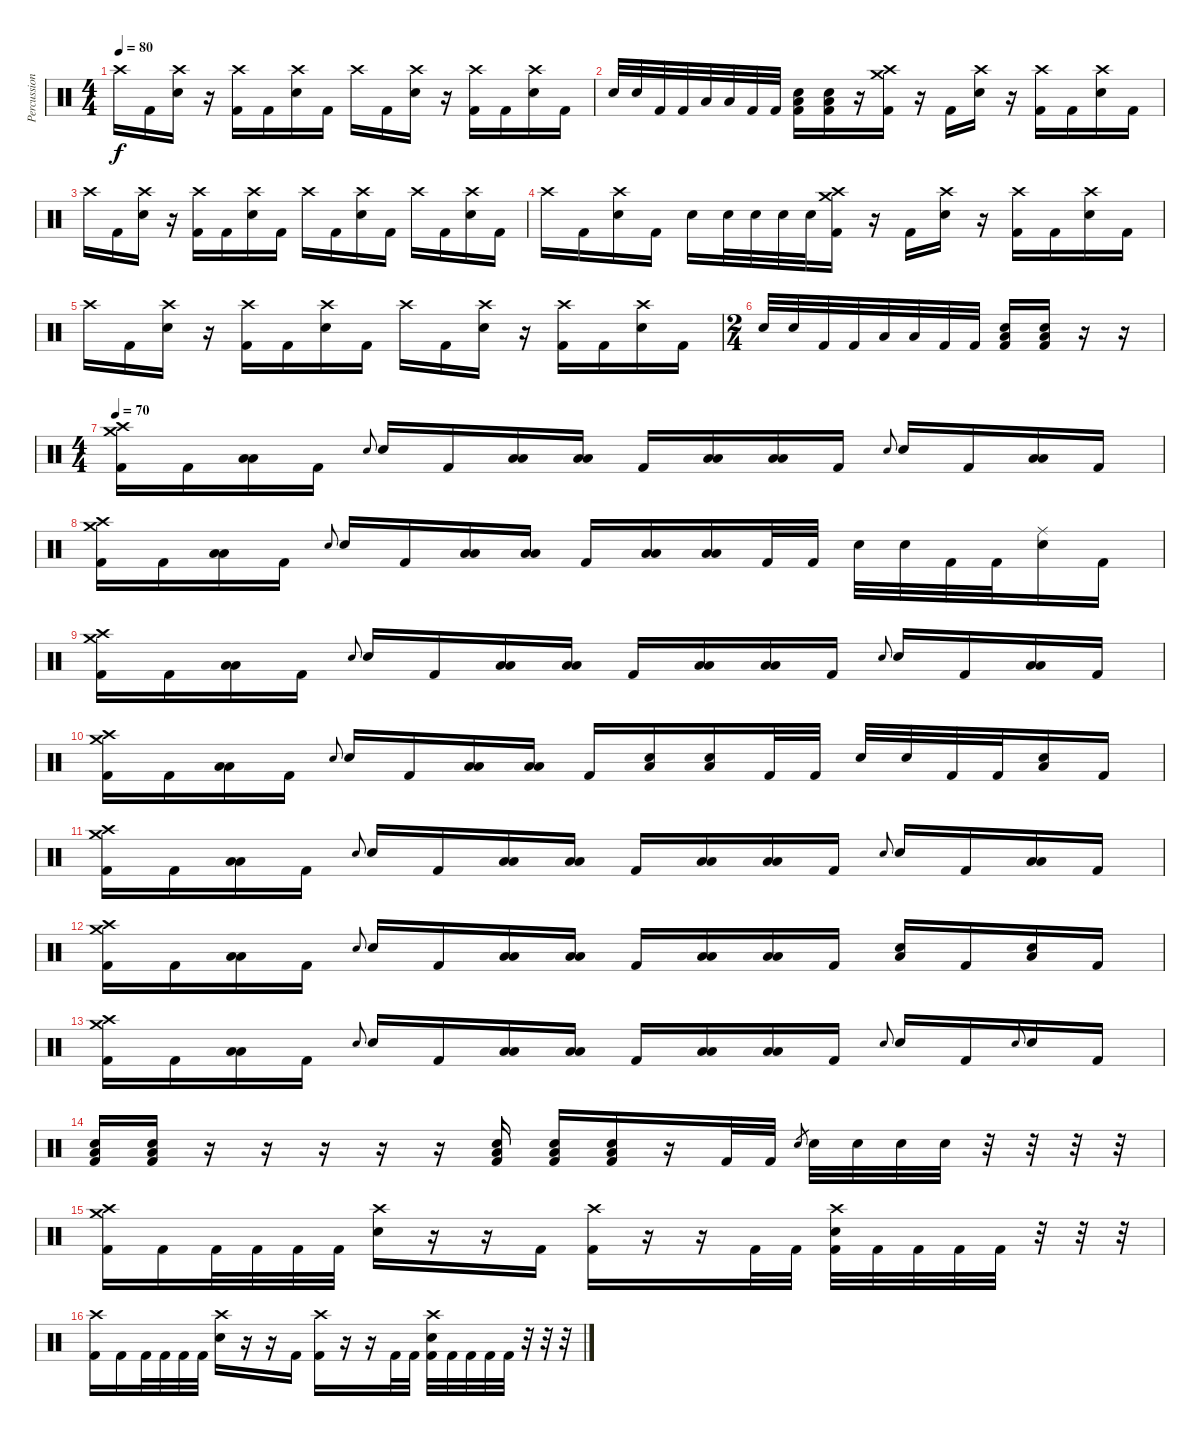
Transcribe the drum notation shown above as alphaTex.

\track ("Percussion" "Percussion") {instrument percussion}
\staff {score}
\articulation defaults
\ts (4 4)
\tempo 80
\clef neutral
\ks c "Crash high (hit)".16{dy f} "Kick (hit) 2".16
("Crash high (hit)" "Electric Snare (hit)").16 r.16 ("Crash high (hit)" "Kick (hit) 2").16 "Kick (hit) 2".16 ("Crash high (hit)" "Electric Snare (hit)").16 "Kick (hit) 2".16 "Crash high (hit)".16 "Kick (hit) 2".16 ("Crash high (hit)" "Electric Snare (hit)").16 r.16 ("Crash high (hit)" "Kick (hit) 2").16 "Kick (hit) 2".16 ("Crash high (hit)" "Electric Snare (hit)").16 "Kick (hit) 2".16 |
"Electric Snare (hit)".32 "Electric Snare (hit)".32 "Kick (hit) 2".32 "Kick (hit) 2".32 "Low Tom (hit)".32 "Low Tom (hit)".32 "Kick (hit) 2".32 "Kick (hit) 2".32 ("Low Floor Tom (hit)" "Electric Snare (hit)" "Kick (hit) 2").16 ("Low Floor Tom (hit)" "Electric Snare (hit)" "Kick (hit) 2").16 r.16 ("Crash medium (hit)" "Crash high (hit)" "Kick (hit) 2").16 r.16 "Kick (hit) 2".16 ("Crash high (hit)" "Electric Snare (hit)").16 r.16 ("Crash high (hit)" "Kick (hit) 2").16 "Kick (hit) 2".16 ("Crash high (hit)" "Electric Snare (hit)").16 "Kick (hit) 2".16 |
"Crash high (hit)".16 "Kick (hit) 2".16 ("Crash high (hit)" "Electric Snare (hit)").16 r.16 ("Crash high (hit)" "Kick (hit) 2").16 "Kick (hit) 2".16 ("Crash high (hit)" "Electric Snare (hit)").16 "Kick (hit) 2".16 "Crash high (hit)".16 "Kick (hit) 2".16 ("Crash high (hit)" "Electric Snare (hit)").16 "Kick (hit) 2".16 "Crash high (hit)".16 "Kick (hit) 2".16 ("Crash high (hit)" "Electric Snare (hit)").16 "Kick (hit) 2".16 |
"Crash high (hit)".16 "Kick (hit) 2".16 ("Crash high (hit)" "Electric Snare (hit)").16 "Kick (hit) 2".16 "Electric Snare (hit)".16 "Electric Snare (hit)".32 "Electric Snare (hit)".32 "Electric Snare (hit)".32 "Electric Snare (hit)".32 ("Crash medium (hit)" "Crash high (hit)" "Kick (hit) 2").16 r.16 "Kick (hit) 2".16 ("Crash high (hit)" "Electric Snare (hit)").16 r.16 ("Crash high (hit)" "Kick (hit) 2").16 "Kick (hit) 2".16 ("Crash high (hit)" "Electric Snare (hit)").16 "Kick (hit) 2".16 |
"Crash high (hit)".16 "Kick (hit) 2".16 ("Crash high (hit)" "Electric Snare (hit)").16 r.16 ("Crash high (hit)" "Kick (hit) 2").16 "Kick (hit) 2".16 ("Crash high (hit)" "Electric Snare (hit)").16 "Kick (hit) 2".16 "Crash high (hit)".16 "Kick (hit) 2".16 ("Crash high (hit)" "Electric Snare (hit)").16 r.16 ("Crash high (hit)" "Kick (hit) 2").16 "Kick (hit) 2".16 ("Crash high (hit)" "Electric Snare (hit)").16 "Kick (hit) 2".16 |
\ts (2 4)
"Electric Snare (hit)".32 "Electric Snare (hit)".32 "Kick (hit) 2".32 "Kick (hit) 2".32 "Low Tom (hit)".32 "Low Tom (hit)".32 "Kick (hit) 2".32 "Kick (hit) 2".32 ("Low Floor Tom (hit)" "Electric Snare (hit)" "Kick (hit) 2").16 ("Low Floor Tom (hit)" "Electric Snare (hit)" "Kick (hit) 2").16 r.16 r.16 |
\ts (4 4)
\tempo 70
("Crash medium (hit)" "Crash high (hit)" "Kick (hit) 2").16 "Kick (hit) 2".16 ("Low Tom (hit)" "Low Floor Tom (hit)").16 "Kick (hit) 2".16 "Electric Snare (hit)".8{gr onbeat} "Electric Snare (hit)".16 "Kick (hit) 2".16 ("Low Tom (hit)" "Low Floor Tom (hit)").16 ("Low Tom (hit)" "Low Floor Tom (hit)").16 "Kick (hit) 2".16 ("Low Tom (hit)" "Low Floor Tom (hit)").16 ("Low Tom (hit)" "Low Floor Tom (hit)").16 "Kick (hit) 2".16 "Electric Snare (hit)".8{gr onbeat} "Electric Snare (hit)".16 "Kick (hit) 2".16 ("Low Tom (hit)" "Low Floor Tom (hit)").16 "Kick (hit) 2".16 |
("Crash medium (hit)" "Crash high (hit)" "Kick (hit) 2").16 "Kick (hit) 2".16 ("Low Tom (hit)" "Low Floor Tom (hit)").16 "Kick (hit) 2".16 "Electric Snare (hit)".8{gr onbeat} "Electric Snare (hit)".16 "Kick (hit) 2".16 ("Low Tom (hit)" "Low Floor Tom (hit)").16 ("Low Tom (hit)" "Low Floor Tom (hit)").16 "Kick (hit) 2".16 ("Low Tom (hit)" "Low Floor Tom (hit)").16 ("Low Tom (hit)" "Low Floor Tom (hit)").16 "Kick (hit) 2".32 "Kick (hit) 2".32 "Electric Snare (hit)".32 "Electric Snare (hit)".32 "Kick (hit) 2".32 "Kick (hit) 2".32 ("Ride (middle)" "Electric Snare (hit)").16 "Kick (hit) 2".16 |
("Crash medium (hit)" "Crash high (hit)" "Kick (hit) 2").16 "Kick (hit) 2".16 ("Low Tom (hit)" "Low Floor Tom (hit)").16 "Kick (hit) 2".16 "Electric Snare (hit)".8{gr onbeat} "Electric Snare (hit)".16 "Kick (hit) 2".16 ("Low Tom (hit)" "Low Floor Tom (hit)").16 ("Low Tom (hit)" "Low Floor Tom (hit)").16 "Kick (hit) 2".16 ("Low Tom (hit)" "Low Floor Tom (hit)").16 ("Low Tom (hit)" "Low Floor Tom (hit)").16 "Kick (hit) 2".16 "Electric Snare (hit)".8{gr onbeat} "Electric Snare (hit)".16 "Kick (hit) 2".16 ("Low Tom (hit)" "Low Floor Tom (hit)").16 "Kick (hit) 2".16 |
("Crash medium (hit)" "Crash high (hit)" "Kick (hit) 2").16 "Kick (hit) 2".16 ("Low Tom (hit)" "Low Floor Tom (hit)").16 "Kick (hit) 2".16 "Electric Snare (hit)".8{gr onbeat} "Electric Snare (hit)".16 "Kick (hit) 2".16 ("Low Tom (hit)" "Low Floor Tom (hit)").16 ("Low Tom (hit)" "Low Floor Tom (hit)").16 "Kick (hit) 2".16 ("Electric Snare (hit)" "Low Floor Tom (hit)").16 ("Electric Snare (hit)" "Low Floor Tom (hit)").16 "Kick (hit) 2".32 "Kick (hit) 2".32 "Electric Snare (hit)".32 "Electric Snare (hit)".32 "Kick (hit) 2".32 "Kick (hit) 2".32 ("Low Floor Tom (hit)" "Electric Snare (hit)").16 "Kick (hit) 2".16 |
("Crash medium (hit)" "Crash high (hit)" "Kick (hit) 2").16 "Kick (hit) 2".16 ("Low Tom (hit)" "Low Floor Tom (hit)").16 "Kick (hit) 2".16 "Electric Snare (hit)".8{gr onbeat} "Electric Snare (hit)".16 "Kick (hit) 2".16 ("Low Tom (hit)" "Low Floor Tom (hit)").16 ("Low Tom (hit)" "Low Floor Tom (hit)").16 "Kick (hit) 2".16 ("Low Tom (hit)" "Low Floor Tom (hit)").16 ("Low Tom (hit)" "Low Floor Tom (hit)").16 "Kick (hit) 2".16 "Electric Snare (hit)".8{gr onbeat} "Electric Snare (hit)".16 "Kick (hit) 2".16 ("Low Tom (hit)" "Low Floor Tom (hit)").16 "Kick (hit) 2".16 |
("Crash medium (hit)" "Crash high (hit)" "Kick (hit) 2").16 "Kick (hit) 2".16 ("Low Tom (hit)" "Low Floor Tom (hit)").16 "Kick (hit) 2".16 "Electric Snare (hit)".8{gr onbeat} "Electric Snare (hit)".16 "Kick (hit) 2".16 ("Low Tom (hit)" "Low Floor Tom (hit)").16 ("Low Tom (hit)" "Low Floor Tom (hit)").16 "Kick (hit) 2".16 ("Low Tom (hit)" "Low Floor Tom (hit)").16 ("Low Tom (hit)" "Low Floor Tom (hit)").16 "Kick (hit) 2".16 ("Low Floor Tom (hit)" "Electric Snare (hit)").16 "Kick (hit) 2".16 ("Low Floor Tom (hit)" "Electric Snare (hit)").16 "Kick (hit) 2".16 |
("Crash medium (hit)" "Crash high (hit)" "Kick (hit) 2").16 "Kick (hit) 2".16 ("Low Tom (hit)" "Low Floor Tom (hit)").16 "Kick (hit) 2".16 "Electric Snare (hit)".8{gr onbeat} "Electric Snare (hit)".16 "Kick (hit) 2".16 ("Low Tom (hit)" "Low Floor Tom (hit)").16 ("Low Tom (hit)" "Low Floor Tom (hit)").16 "Kick (hit) 2".16 ("Low Tom (hit)" "Low Floor Tom (hit)").16 ("Low Tom (hit)" "Low Floor Tom (hit)").16 "Kick (hit) 2".16 "Electric Snare (hit)".8{gr onbeat} "Electric Snare (hit)".16 "Kick (hit) 2".16 "Electric Snare (hit)".8{gr onbeat} "Electric Snare (hit)".16 "Kick (hit) 2".16 |
("Low Floor Tom (hit)" "Electric Snare (hit)" "Kick (hit) 2").16 ("Low Floor Tom (hit)" "Electric Snare (hit)" "Kick (hit) 2").16 r.16 r.16 r.16 r.16 r.16 ("Low Floor Tom (hit)" "Electric Snare (hit)" "Kick (hit) 2").16 ("Low Floor Tom (hit)" "Electric Snare (hit)" "Kick (hit) 2").16 ("Low Floor Tom (hit)" "Electric Snare (hit)" "Kick (hit) 2").16 r.16 "Kick (hit) 2".32 "Kick (hit) 2".32 "Electric Snare (hit)".8{gr} "Electric Snare (hit)".32 "Electric Snare (hit)".32 "Electric Snare (hit)".32 "Electric Snare (hit)".32 r.32 r.32 r.32 r.32 |
("Crash medium (hit)" "Crash high (hit)" "Kick (hit) 2").16 "Kick (hit) 2".16 "Kick (hit) 2".32 "Kick (hit) 2".32 "Kick (hit) 2".32 "Kick (hit) 2".32 ("Crash high (hit)" "Electric Snare (hit)").16 r.16 r.16 "Kick (hit) 2".16 ("Crash high (hit)" "Kick (hit) 2").16 r.16 r.16 "Kick (hit) 2".32 "Kick (hit) 2".32 ("Crash high (hit)" "Electric Snare (hit)" "Kick (hit) 2").32 "Kick (hit) 2".32 "Kick (hit) 2".32 "Kick (hit) 2".32 "Kick (hit) 2".32 r.32 r.32 r.32 |
("Crash high (hit)" "Kick (hit) 2").16 "Kick (hit) 2".16 "Kick (hit) 2".32 "Kick (hit) 2".32 "Kick (hit) 2".32 "Kick (hit) 2".32 ("Crash high (hit)" "Electric Snare (hit)").16 r.16 r.16 "Kick (hit) 2".16 ("Crash high (hit)" "Kick (hit) 2").16 r.16 r.16 "Kick (hit) 2".32 "Kick (hit) 2".32 ("Crash high (hit)" "Electric Snare (hit)" "Kick (hit) 2").32 "Kick (hit) 2".32 "Kick (hit) 2".32 "Kick (hit) 2".32 "Kick (hit) 2".32 r.32 r.32 r.32
